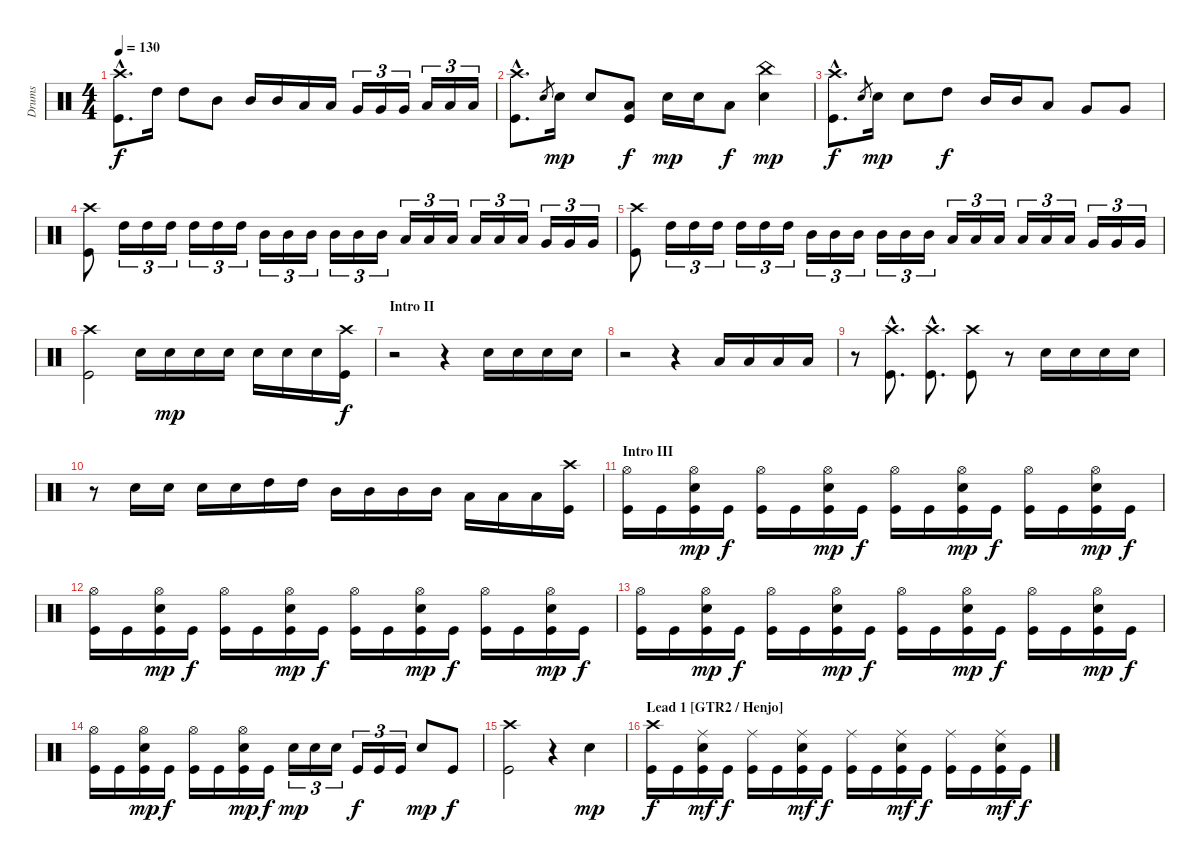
\track ("Drums" "Drums") {instrument percussion}
\staff {score}
\articulation defaults
\ts (4 4)
\tempo 130
\clef neutral
\ks c
("Crash high (hit)"{hac} "Kick (hit)"{hac}).8{d dy f} "High Tom (hit)".16 "High Tom (hit)".8 "Mid Tom (hit)".8 "Mid Tom (hit)".16 "Mid Tom (hit)".16 "Low Tom (hit)".16 "Low Tom (hit)".16 "Very Low Tom (hit)".16{tu (3 2)} "Very Low Tom (hit)".16{tu (3 2)} "Very Low Tom (hit)".16{tu (3 2)} "Low Floor Tom (hit)".16{tu (3 2)} "Low Floor Tom (hit)".16{tu (3 2)} "Low Floor Tom (hit)".16{tu (3 2)} |
("Crash high (hit)"{hac} "Kick (hit)"{hac}).8{d} "Electric Snare (hit)".8{gr} "Snare (hit) 2".16{dy mp} "Snare (hit) 2".8 ("Low Tom (hit)" "Kick (hit)").8{dy f} "Snare (hit) 2".16{dy mp} "Snare (hit) 2".16 "Low Tom (hit)".8{dy f} ("China (hit)" "Snare (hit) 2").4{dy mp} |
("Crash high (hit)"{hac} "Kick (hit)"{hac}).8{d dy f} "Electric Snare (hit)".8{gr} "Snare (hit) 2".16{dy mp} "Snare (hit) 2".8 "High Tom (hit)".8{dy f} "Mid Tom (hit)".16 "Mid Tom (hit)".16 "Low Tom (hit)".8 "Very Low Tom (hit)".8 "Very Low Tom (hit)".8 |
("Crash high (hit)" "Kick (hit)").8 "High Tom (hit)".16{tu (3 2)} "High Tom (hit)".16{tu (3 2)} "High Tom (hit)".16{tu (3 2)} "High Tom (hit)".16{tu (3 2)} "High Tom (hit)".16{tu (3 2)} "High Tom (hit)".16{tu (3 2)} "Mid Tom (hit)".16{tu (3 2)} "Mid Tom (hit)".16{tu (3 2)} "Mid Tom (hit)".16{tu (3 2)} "Mid Tom (hit)".16{tu (3 2)} "Mid Tom (hit)".16{tu (3 2)} "Mid Tom (hit)".16{tu (3 2)} "Low Tom (hit)".16{tu (3 2)} "Low Tom (hit)".16{tu (3 2)} "Low Tom (hit)".16{tu (3 2)} "Low Tom (hit)".16{tu (3 2)} "Low Tom (hit)".16{tu (3 2)} "Low Tom (hit)".16{tu (3 2)} "Very Low Tom (hit)".16{tu (3 2)} "Very Low Tom (hit)".16{tu (3 2)} "Very Low Tom (hit)".16{tu (3 2)} |
("Crash high (hit)" "Kick (hit)").8 "High Tom (hit)".16{tu (3 2)} "High Tom (hit)".16{tu (3 2)} "High Tom (hit)".16{tu (3 2)} "High Tom (hit)".16{tu (3 2)} "High Tom (hit)".16{tu (3 2)} "High Tom (hit)".16{tu (3 2)} "Mid Tom (hit)".16{tu (3 2)} "Mid Tom (hit)".16{tu (3 2)} "Mid Tom (hit)".16{tu (3 2)} "Mid Tom (hit)".16{tu (3 2)} "Mid Tom (hit)".16{tu (3 2)} "Mid Tom (hit)".16{tu (3 2)} "Low Tom (hit)".16{tu (3 2)} "Low Tom (hit)".16{tu (3 2)} "Low Tom (hit)".16{tu (3 2)} "Low Tom (hit)".16{tu (3 2)} "Low Tom (hit)".16{tu (3 2)} "Low Tom (hit)".16{tu (3 2)} "Very Low Tom (hit)".16{tu (3 2)} "Very Low Tom (hit)".16{tu (3 2)} "Very Low Tom (hit)".16{tu (3 2)} |
("Crash high (hit)" "Kick (hit)").2 "Snare (hit) 2".16 "Snare (hit) 2".16{dy mp} "Snare (hit) 2".16 "Snare (hit) 2".16 "Snare (hit) 2".16 "Snare (hit) 2".16 "Snare (hit) 2".16 ("Crash high (hit)" "Kick (hit)").16{dy f} |
\section ("" "Intro II")
r.2 r.4 "Snare (hit) 2".16 "Snare (hit) 2".16 "Snare (hit) 2".16 "Snare (hit) 2".16 |
r.2 r.4 "Low Tom (hit)".16 "Low Tom (hit)".16 "Low Tom (hit)".16 "Low Tom (hit)".16 |
r.8 ("Crash high (hit)"{hac} "Kick (hit)"{hac}).8{d} ("Crash high (hit)"{hac} "Kick (hit)"{hac}).8{d} ("Crash high (hit)" "Kick (hit)").8 r.8 "Snare (hit) 2".16 "Snare (hit) 2".16 "Snare (hit) 2".16 "Snare (hit) 2".16 |
r.8 "Snare (hit) 2".16 "Snare (hit) 2".16 "Snare (hit) 2".16 "Snare (hit) 2".16 "High Tom (hit)".16 "High Tom (hit)".16 "Mid Tom (hit)".16 "Mid Tom (hit)".16 "Mid Tom (hit)".16 "Mid Tom (hit)".16 "Low Tom (hit)".16 "Low Tom (hit)".16 "Low Tom (hit)".16 ("Crash high (hit)" "Kick (hit)").16 |
\section ("" "Intro III")
("Hi-Hat (open)" "Kick (hit)").16 "Kick (hit)".16 ("Hi-Hat (open)" "Snare (hit) 2" "Kick (hit)").16{dy mp} "Kick (hit)".16{dy f} ("Hi-Hat (open)" "Kick (hit)").16 "Kick (hit)".16 ("Hi-Hat (open)" "Snare (hit) 2" "Kick (hit)").16{dy mp} "Kick (hit)".16{dy f} ("Hi-Hat (open)" "Kick (hit)").16 "Kick (hit)".16 ("Hi-Hat (open)" "Snare (hit) 2" "Kick (hit)").16{dy mp} "Kick (hit)".16{dy f} ("Hi-Hat (open)" "Kick (hit)").16 "Kick (hit)".16 ("Hi-Hat (open)" "Snare (hit) 2" "Kick (hit)").16{dy mp} "Kick (hit)".16{dy f} |
("Hi-Hat (open)" "Kick (hit)").16 "Kick (hit)".16 ("Hi-Hat (open)" "Snare (hit) 2" "Kick (hit)").16{dy mp} "Kick (hit)".16{dy f} ("Hi-Hat (open)" "Kick (hit)").16 "Kick (hit)".16 ("Hi-Hat (open)" "Snare (hit) 2" "Kick (hit)").16{dy mp} "Kick (hit)".16{dy f} ("Hi-Hat (open)" "Kick (hit)").16 "Kick (hit)".16 ("Hi-Hat (open)" "Snare (hit) 2" "Kick (hit)").16{dy mp} "Kick (hit)".16{dy f} ("Hi-Hat (open)" "Kick (hit)").16 "Kick (hit)".16 ("Hi-Hat (open)" "Snare (hit) 2" "Kick (hit)").16{dy mp} "Kick (hit)".16{dy f} |
("Hi-Hat (open)" "Kick (hit)").16 "Kick (hit)".16 ("Hi-Hat (open)" "Snare (hit) 2" "Kick (hit)").16{dy mp} "Kick (hit)".16{dy f} ("Hi-Hat (open)" "Kick (hit)").16 "Kick (hit)".16 ("Hi-Hat (open)" "Snare (hit) 2" "Kick (hit)").16{dy mp} "Kick (hit)".16{dy f} ("Hi-Hat (open)" "Kick (hit)").16 "Kick (hit)".16 ("Hi-Hat (open)" "Snare (hit) 2" "Kick (hit)").16{dy mp} "Kick (hit)".16{dy f} ("Hi-Hat (open)" "Kick (hit)").16 "Kick (hit)".16 ("Hi-Hat (open)" "Snare (hit) 2" "Kick (hit)").16{dy mp} "Kick (hit)".16{dy f} |
("Hi-Hat (open)" "Kick (hit)").16 "Kick (hit)".16 ("Hi-Hat (open)" "Snare (hit) 2" "Kick (hit)").16{dy mp} "Kick (hit)".16{dy f} ("Hi-Hat (open)" "Kick (hit)").16 "Kick (hit)".16 ("Hi-Hat (open)" "Snare (hit) 2" "Kick (hit)").16{dy mp} "Kick (hit)".16{dy f} "Snare (hit) 2".16{tu (3 2) dy mp} "Snare (hit) 2".16{tu (3 2)} "Snare (hit) 2".16{tu (3 2)} "Kick (hit)".16{tu (3 2) dy f} "Kick (hit)".16{tu (3 2)} "Kick (hit)".16{tu (3 2)} "Snare (hit) 2".8{dy mp} "Kick (hit)".8{dy f} |
("Crash high (hit)" "Kick (hit)").2 r.4 "Snare (hit) 2".4{dy mp} |
\section ("" "Lead 1 [GTR2 / Henjo]")
("Crash high (hit)" "Kick (hit)").16{dy f} "Kick (hit)".16 ("Ride (middle)" "Snare (hit) 2" "Kick (hit)").16{dy mf} "Kick (hit)".16{dy f} ("Ride (middle)" "Kick (hit)").16 "Kick (hit)".16 ("Ride (middle)" "Snare (hit) 2" "Kick (hit)").16{dy mf} "Kick (hit)".16{dy f} ("Ride (middle)" "Kick (hit)").16 "Kick (hit)".16 ("Ride (middle)" "Snare (hit) 2" "Kick (hit)").16{dy mf} "Kick (hit)".16{dy f} ("Ride (middle)" "Kick (hit)").16 "Kick (hit)".16 ("Ride (middle)" "Snare (hit) 2" "Kick (hit)").16{dy mf} "Kick (hit)".16{dy f}
